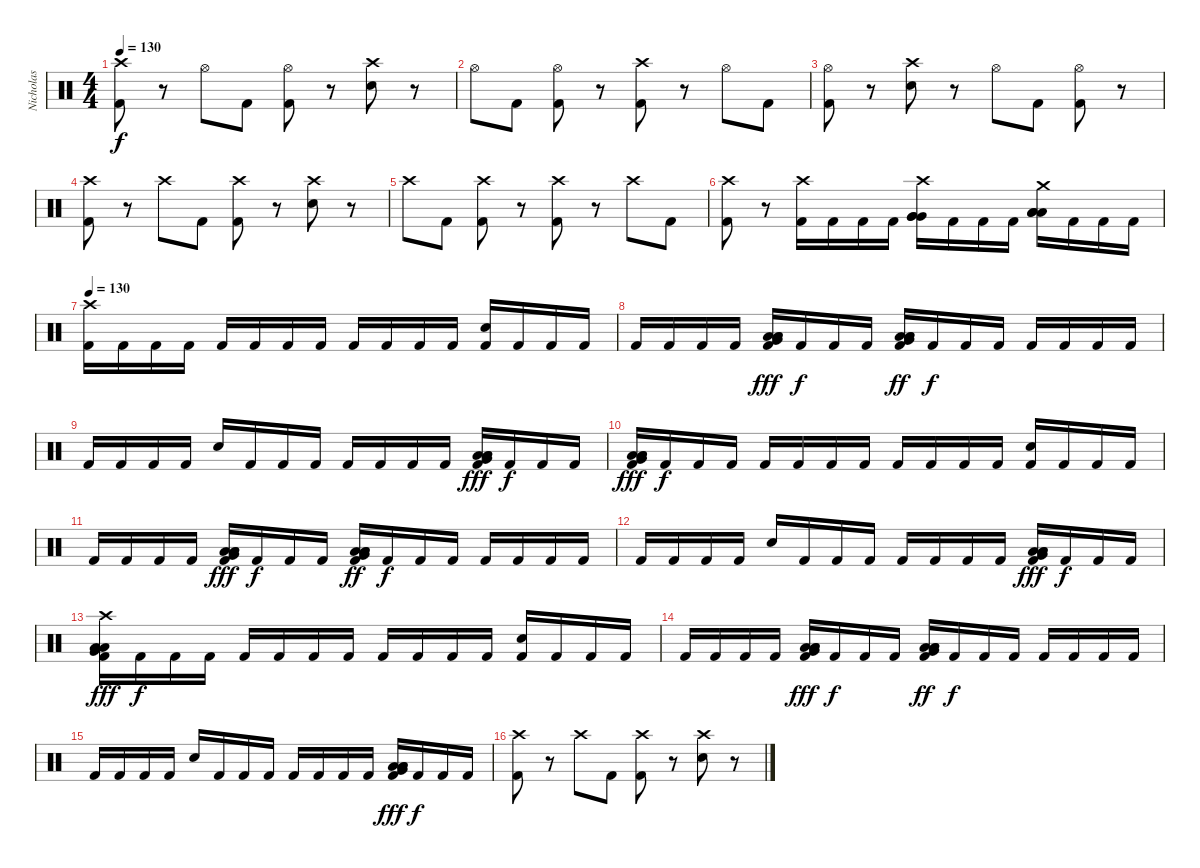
\track ("Nicholas" "Nicholas") {instrument percussion}
\staff {score}
\articulation defaults
\ts (4 4)
\tempo 130
\clef neutral
\ks c
("Crash high (hit)" "Kick (hit) 2").8{dy f} r.8 "Hi-Hat (open)".8 "Kick (hit) 2".8 ("Hi-Hat (open)" "Kick (hit) 2").8 r.8 ("Crash high (hit)" "Electric Snare (hit)").8 r.8 |
"Hi-Hat (open)".8 "Kick (hit) 2".8 ("Hi-Hat (open)" "Kick (hit) 2").8 r.8 ("Crash high (hit)" "Kick (hit) 2").8 r.8 "Hi-Hat (open)".8 "Kick (hit) 2".8 |
("Hi-Hat (open)" "Kick (hit) 2").8 r.8 ("Crash high (hit)" "Electric Snare (hit)").8 r.8 "Hi-Hat (open)".8 "Kick (hit) 2".8 ("Hi-Hat (open)" "Kick (hit) 2").8 r.8 |
("Crash high (hit)" "Kick (hit) 2").8 r.8 "Crash high (hit)".8 "Kick (hit) 2".8 ("Crash high (hit)" "Kick (hit) 2").8 r.8 ("Crash high (hit)" "Electric Snare (hit)").8 r.8 |
"Crash high (hit)".8 "Kick (hit) 2".8 ("Crash high (hit)" "Kick (hit) 2").8 r.8 ("Crash high (hit)" "Kick (hit) 2").8 r.8 "Crash high (hit)".8 "Kick (hit) 2".8 |
("Crash high (hit)" "Kick (hit) 2").8 r.8 ("Crash high (hit)" "Kick (hit) 2").16 "Kick (hit) 2".16 "Kick (hit) 2".16 "Kick (hit) 2".16 ("Crash high (hit)" "Very Low Tom (hit)" "Very Low Tom (hit)" "Very Low Tom (hit)").16 "Kick (hit) 2".16 "Kick (hit) 2".16 "Kick (hit) 2".16 ("Crash medium (hit)" "Low Tom (hit)" "Low Tom (hit)" "Low Tom (hit)").16 "Kick (hit) 2".16 "Kick (hit) 2".16 "Kick (hit) 2".16 |
\tempo 130
("Crash high (hit)" "Kick (hit) 2").16 "Kick (hit) 2".16 "Kick (hit) 2".16 "Kick (hit) 2".16 "Kick (hit) 2".16 "Kick (hit) 2".16 "Kick (hit) 2".16 "Kick (hit) 2".16 "Kick (hit) 2".16 "Kick (hit) 2".16 "Kick (hit) 2".16 "Kick (hit) 2".16 ("Electric Snare (hit)" "Kick (hit) 2").16 "Kick (hit) 2".16 "Kick (hit) 2".16 "Kick (hit) 2".16 |
"Kick (hit) 2".16 "Kick (hit) 2".16 "Kick (hit) 2".16 "Kick (hit) 2".16 ("Low Floor Tom (hit)" "Kick (hit) 2" "Very Low Tom (hit)" "Low Tom (hit)" "Low Tom (hit)").16{dy fff} "Kick (hit) 2".16{dy f} "Kick (hit) 2".16 "Kick (hit) 2".16 ("Low Floor Tom (hit)" "Kick (hit) 2" "Very Low Tom (hit)" "Low Tom (hit)" "Low Tom (hit)").16{dy ff} "Kick (hit) 2".16{dy f} "Kick (hit) 2".16 "Kick (hit) 2".16 "Kick (hit) 2".16 "Kick (hit) 2".16 "Kick (hit) 2".16 "Kick (hit) 2".16 |
"Kick (hit) 2".16 "Kick (hit) 2".16 "Kick (hit) 2".16 "Kick (hit) 2".16 "Electric Snare (hit)".16 "Kick (hit) 2".16 "Kick (hit) 2".16 "Kick (hit) 2".16 "Kick (hit) 2".16 "Kick (hit) 2".16 "Kick (hit) 2".16 "Kick (hit) 2".16 ("Low Floor Tom (hit)" "Kick (hit) 2" "Very Low Tom (hit)" "Low Tom (hit)" "Low Tom (hit)").16{dy fff} "Kick (hit) 2".16{dy f} "Kick (hit) 2".16 "Kick (hit) 2".16 |
("Low Floor Tom (hit)" "Kick (hit) 2" "Very Low Tom (hit)" "Low Tom (hit)" "Low Tom (hit)").16{dy fff} "Kick (hit) 2".16{dy f} "Kick (hit) 2".16 "Kick (hit) 2".16 "Kick (hit) 2".16 "Kick (hit) 2".16 "Kick (hit) 2".16 "Kick (hit) 2".16 "Kick (hit) 2".16 "Kick (hit) 2".16 "Kick (hit) 2".16 "Kick (hit) 2".16 ("Electric Snare (hit)" "Kick (hit) 2").16 "Kick (hit) 2".16 "Kick (hit) 2".16 "Kick (hit) 2".16 |
"Kick (hit) 2".16 "Kick (hit) 2".16 "Kick (hit) 2".16 "Kick (hit) 2".16 ("Low Floor Tom (hit)" "Kick (hit) 2" "Very Low Tom (hit)" "Low Tom (hit)" "Low Tom (hit)").16{dy fff} "Kick (hit) 2".16{dy f} "Kick (hit) 2".16 "Kick (hit) 2".16 ("Low Floor Tom (hit)" "Kick (hit) 2" "Very Low Tom (hit)" "Low Tom (hit)" "Low Tom (hit)").16{dy ff} "Kick (hit) 2".16{dy f} "Kick (hit) 2".16 "Kick (hit) 2".16 "Kick (hit) 2".16 "Kick (hit) 2".16 "Kick (hit) 2".16 "Kick (hit) 2".16 |
"Kick (hit) 2".16 "Kick (hit) 2".16 "Kick (hit) 2".16 "Kick (hit) 2".16 "Electric Snare (hit)".16 "Kick (hit) 2".16 "Kick (hit) 2".16 "Kick (hit) 2".16 "Kick (hit) 2".16 "Kick (hit) 2".16 "Kick (hit) 2".16 "Kick (hit) 2".16 ("Low Floor Tom (hit)" "Kick (hit) 2" "Very Low Tom (hit)" "Low Tom (hit)" "Low Tom (hit)").16{dy fff} "Kick (hit) 2".16{dy f} "Kick (hit) 2".16 "Kick (hit) 2".16 |
("Crash high (hit)" "Kick (hit) 2" "Very Low Tom (hit)" "Low Tom (hit)" "Low Tom (hit)").16{dy fff} "Kick (hit) 2".16{dy f} "Kick (hit) 2".16 "Kick (hit) 2".16 "Kick (hit) 2".16 "Kick (hit) 2".16 "Kick (hit) 2".16 "Kick (hit) 2".16 "Kick (hit) 2".16 "Kick (hit) 2".16 "Kick (hit) 2".16 "Kick (hit) 2".16 ("Electric Snare (hit)" "Kick (hit) 2").16 "Kick (hit) 2".16 "Kick (hit) 2".16 "Kick (hit) 2".16 |
"Kick (hit) 2".16 "Kick (hit) 2".16 "Kick (hit) 2".16 "Kick (hit) 2".16 ("Low Floor Tom (hit)" "Kick (hit) 2" "Very Low Tom (hit)" "Low Tom (hit)" "Low Tom (hit)").16{dy fff} "Kick (hit) 2".16{dy f} "Kick (hit) 2".16 "Kick (hit) 2".16 ("Low Floor Tom (hit)" "Kick (hit) 2" "Very Low Tom (hit)" "Low Tom (hit)" "Low Tom (hit)").16{dy ff} "Kick (hit) 2".16{dy f} "Kick (hit) 2".16 "Kick (hit) 2".16 "Kick (hit) 2".16 "Kick (hit) 2".16 "Kick (hit) 2".16 "Kick (hit) 2".16 |
"Kick (hit) 2".16 "Kick (hit) 2".16 "Kick (hit) 2".16 "Kick (hit) 2".16 "Electric Snare (hit)".16 "Kick (hit) 2".16 "Kick (hit) 2".16 "Kick (hit) 2".16 "Kick (hit) 2".16 "Kick (hit) 2".16 "Kick (hit) 2".16 "Kick (hit) 2".16 ("Low Floor Tom (hit)" "Kick (hit) 2" "Very Low Tom (hit)" "Low Tom (hit)" "Low Tom (hit)").16{dy fff} "Kick (hit) 2".16{dy f} "Kick (hit) 2".16 "Kick (hit) 2".16 |
("Crash high (hit)" "Kick (hit) 2").8 r.8 "Crash high (hit)".8 "Kick (hit) 2".8 ("Crash high (hit)" "Kick (hit) 2").8 r.8 ("Crash high (hit)" "Electric Snare (hit)").8 r.8
